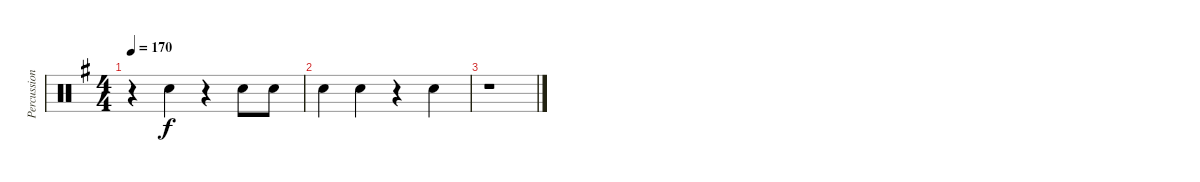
\track ("Percussion" "Percussion") {instrument percussion}
\staff {score}
\articulation defaults
\ts (4 4)
\tempo 170
\clef neutral
\ks g
r.4{dy f} "Hand Clap (hit)".4 r.4 "Hand Clap (hit)".8 "Hand Clap (hit)".8 |
"Hand Clap (hit)".4 "Hand Clap (hit)".4 r.4 "Hand Clap (hit)".4 |
r.1
